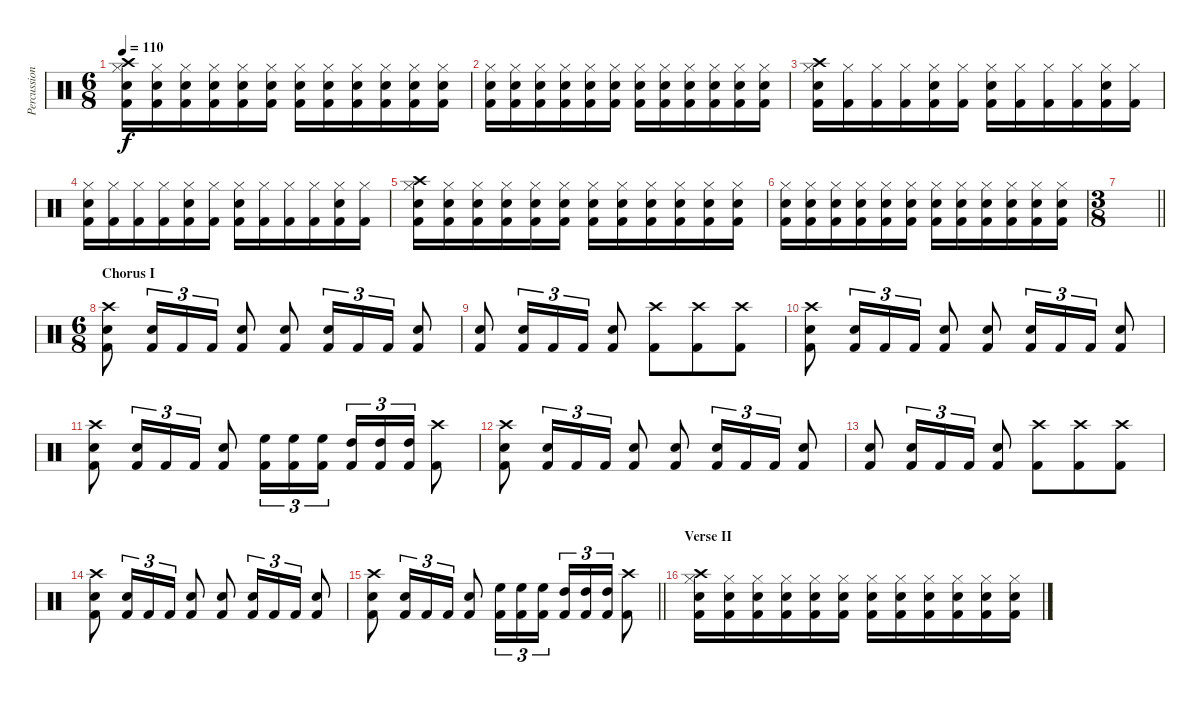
\track ("Percussion" "Percussion") {instrument percussion}
\staff {score}
\articulation defaults
\ts (6 8)
\tempo 110
\clef neutral
\ks c
("Crash high (hit)" "Hi-Hat (closed)" "Electric Snare (hit)" "Kick (hit) 2").16{dy f} ("Hi-Hat (closed)" "Electric Snare (hit)" "Kick (hit) 2").16 ("Hi-Hat (closed)" "Electric Snare (hit)" "Kick (hit) 2").16 ("Hi-Hat (closed)" "Electric Snare (hit)" "Kick (hit) 2").16 ("Hi-Hat (closed)" "Electric Snare (hit)" "Kick (hit) 2").16 ("Hi-Hat (closed)" "Electric Snare (hit)" "Kick (hit) 2").16 ("Hi-Hat (closed)" "Electric Snare (hit)" "Kick (hit) 2").16 ("Hi-Hat (closed)" "Electric Snare (hit)" "Kick (hit) 2").16 ("Hi-Hat (closed)" "Electric Snare (hit)" "Kick (hit) 2").16 ("Hi-Hat (closed)" "Electric Snare (hit)" "Kick (hit) 2").16 ("Hi-Hat (closed)" "Electric Snare (hit)" "Kick (hit) 2").16 ("Hi-Hat (closed)" "Electric Snare (hit)" "Kick (hit) 2").16 |
("Hi-Hat (closed)" "Electric Snare (hit)" "Kick (hit) 2").16 ("Hi-Hat (closed)" "Electric Snare (hit)" "Kick (hit) 2").16 ("Hi-Hat (closed)" "Electric Snare (hit)" "Kick (hit) 2").16 ("Hi-Hat (closed)" "Electric Snare (hit)" "Kick (hit) 2").16 ("Hi-Hat (closed)" "Electric Snare (hit)" "Kick (hit) 2").16 ("Hi-Hat (closed)" "Electric Snare (hit)" "Kick (hit) 2").16 ("Hi-Hat (closed)" "Electric Snare (hit)" "Kick (hit) 2").16 ("Hi-Hat (closed)" "Electric Snare (hit)" "Kick (hit) 2").16 ("Hi-Hat (closed)" "Electric Snare (hit)" "Kick (hit) 2").16 ("Hi-Hat (closed)" "Electric Snare (hit)" "Kick (hit) 2").16 ("Hi-Hat (closed)" "Electric Snare (hit)" "Kick (hit) 2").16 ("Hi-Hat (closed)" "Electric Snare (hit)" "Kick (hit) 2").16 |
("Crash high (hit)" "Hi-Hat (closed)" "Electric Snare (hit)" "Kick (hit) 2").16 ("Hi-Hat (closed)" "Kick (hit) 2").16 ("Hi-Hat (closed)" "Kick (hit) 2").16 ("Hi-Hat (closed)" "Kick (hit) 2").16 ("Hi-Hat (closed)" "Electric Snare (hit)" "Kick (hit) 2").16 ("Hi-Hat (closed)" "Kick (hit) 2").16 ("Hi-Hat (closed)" "Electric Snare (hit)" "Kick (hit) 2").16 ("Hi-Hat (closed)" "Kick (hit) 2").16 ("Hi-Hat (closed)" "Kick (hit) 2").16 ("Hi-Hat (closed)" "Kick (hit) 2").16 ("Hi-Hat (closed)" "Electric Snare (hit)" "Kick (hit) 2").16 ("Hi-Hat (closed)" "Kick (hit) 2").16 |
("Hi-Hat (closed)" "Electric Snare (hit)" "Kick (hit) 2").16 ("Hi-Hat (closed)" "Kick (hit) 2").16 ("Hi-Hat (closed)" "Kick (hit) 2").16 ("Hi-Hat (closed)" "Kick (hit) 2").16 ("Hi-Hat (closed)" "Electric Snare (hit)" "Kick (hit) 2").16 ("Hi-Hat (closed)" "Kick (hit) 2").16 ("Hi-Hat (closed)" "Electric Snare (hit)" "Kick (hit) 2").16 ("Hi-Hat (closed)" "Kick (hit) 2").16 ("Hi-Hat (closed)" "Kick (hit) 2").16 ("Hi-Hat (closed)" "Kick (hit) 2").16 ("Hi-Hat (closed)" "Electric Snare (hit)" "Kick (hit) 2").16 ("Hi-Hat (closed)" "Kick (hit) 2").16 |
("Crash high (hit)" "Hi-Hat (closed)" "Electric Snare (hit)" "Kick (hit) 2").16 ("Hi-Hat (closed)" "Electric Snare (hit)" "Kick (hit) 2").16 ("Hi-Hat (closed)" "Electric Snare (hit)" "Kick (hit) 2").16 ("Hi-Hat (closed)" "Electric Snare (hit)" "Kick (hit) 2").16 ("Hi-Hat (closed)" "Electric Snare (hit)" "Kick (hit) 2").16 ("Hi-Hat (closed)" "Electric Snare (hit)" "Kick (hit) 2").16 ("Hi-Hat (closed)" "Electric Snare (hit)" "Kick (hit) 2").16 ("Hi-Hat (closed)" "Electric Snare (hit)" "Kick (hit) 2").16 ("Hi-Hat (closed)" "Electric Snare (hit)" "Kick (hit) 2").16 ("Hi-Hat (closed)" "Electric Snare (hit)" "Kick (hit) 2").16 ("Hi-Hat (closed)" "Electric Snare (hit)" "Kick (hit) 2").16 ("Hi-Hat (closed)" "Electric Snare (hit)" "Kick (hit) 2").16 |
("Hi-Hat (closed)" "Electric Snare (hit)" "Kick (hit) 2").16 ("Hi-Hat (closed)" "Electric Snare (hit)" "Kick (hit) 2").16 ("Hi-Hat (closed)" "Electric Snare (hit)" "Kick (hit) 2").16 ("Hi-Hat (closed)" "Electric Snare (hit)" "Kick (hit) 2").16 ("Hi-Hat (closed)" "Electric Snare (hit)" "Kick (hit) 2").16 ("Hi-Hat (closed)" "Electric Snare (hit)" "Kick (hit) 2").16 ("Hi-Hat (closed)" "Electric Snare (hit)" "Kick (hit) 2").16 ("Hi-Hat (closed)" "Electric Snare (hit)" "Kick (hit) 2").16 ("Hi-Hat (closed)" "Electric Snare (hit)" "Kick (hit) 2").16 ("Hi-Hat (closed)" "Electric Snare (hit)" "Kick (hit) 2").16 ("Hi-Hat (closed)" "Electric Snare (hit)" "Kick (hit) 2").16 ("Hi-Hat (closed)" "Electric Snare (hit)" "Kick (hit) 2").16 |
\ts (3 8)
\barLineRight lightlight
|
\ts (6 8)
\section ("" "Chorus I")
("Crash high (hit)" "Electric Snare (hit)" "Kick (hit) 2").8 ("Electric Snare (hit)" "Kick (hit) 2").16{tu (3 2)} "Kick (hit) 2".16{tu (3 2)} "Kick (hit) 2".16{tu (3 2)} ("Electric Snare (hit)" "Kick (hit) 2").8 ("Electric Snare (hit)" "Kick (hit) 2").8 ("Electric Snare (hit)" "Kick (hit) 2").16{tu (3 2)} "Kick (hit) 2".16{tu (3 2)} "Kick (hit) 2".16{tu (3 2)} ("Electric Snare (hit)" "Kick (hit) 2").8 |
("Electric Snare (hit)" "Kick (hit) 2").8 ("Electric Snare (hit)" "Kick (hit) 2").16{tu (3 2)} "Kick (hit) 2".16{tu (3 2)} "Kick (hit) 2".16{tu (3 2)} ("Electric Snare (hit)" "Kick (hit) 2").8 ("Crash high (hit)" "Kick (hit) 2").8 ("Crash high (hit)" "Kick (hit) 2").8 ("Crash high (hit)" "Kick (hit) 2").8 |
("Crash high (hit)" "Electric Snare (hit)" "Kick (hit) 2").8 ("Electric Snare (hit)" "Kick (hit) 2").16{tu (3 2)} "Kick (hit) 2".16{tu (3 2)} "Kick (hit) 2".16{tu (3 2)} ("Electric Snare (hit)" "Kick (hit) 2").8 ("Electric Snare (hit)" "Kick (hit) 2").8 ("Electric Snare (hit)" "Kick (hit) 2").16{tu (3 2)} "Kick (hit) 2".16{tu (3 2)} "Kick (hit) 2".16{tu (3 2)} ("Electric Snare (hit)" "Kick (hit) 2").8 |
("Crash high (hit)" "Electric Snare (hit)" "Kick (hit) 2").8 ("Electric Snare (hit)" "Kick (hit) 2").16{tu (3 2)} "Kick (hit) 2".16{tu (3 2)} "Kick (hit) 2".16{tu (3 2)} ("Electric Snare (hit)" "Kick (hit) 2").8 ("High Floor Tom (hit)" "Kick (hit) 2").16{tu (3 2)} ("High Floor Tom (hit)" "Kick (hit) 2").16{tu (3 2)} ("High Floor Tom (hit)" "Kick (hit) 2").16{tu (3 2) beam splitsecondary} ("High Tom (hit)" "Kick (hit) 2").16{tu (3 2)} ("High Tom (hit)" "Kick (hit) 2").16{tu (3 2)} ("High Tom (hit)" "Kick (hit) 2").16{tu (3 2)} ("Crash high (hit)" "Kick (hit) 2").8 |
("Crash high (hit)" "Electric Snare (hit)" "Kick (hit) 2").8 ("Electric Snare (hit)" "Kick (hit) 2").16{tu (3 2)} "Kick (hit) 2".16{tu (3 2)} "Kick (hit) 2".16{tu (3 2)} ("Electric Snare (hit)" "Kick (hit) 2").8 ("Electric Snare (hit)" "Kick (hit) 2").8 ("Electric Snare (hit)" "Kick (hit) 2").16{tu (3 2)} "Kick (hit) 2".16{tu (3 2)} "Kick (hit) 2".16{tu (3 2)} ("Electric Snare (hit)" "Kick (hit) 2").8 |
("Electric Snare (hit)" "Kick (hit) 2").8 ("Electric Snare (hit)" "Kick (hit) 2").16{tu (3 2)} "Kick (hit) 2".16{tu (3 2)} "Kick (hit) 2".16{tu (3 2)} ("Electric Snare (hit)" "Kick (hit) 2").8 ("Crash high (hit)" "Kick (hit) 2").8 ("Crash high (hit)" "Kick (hit) 2").8 ("Crash high (hit)" "Kick (hit) 2").8 |
("Crash high (hit)" "Electric Snare (hit)" "Kick (hit) 2").8 ("Electric Snare (hit)" "Kick (hit) 2").16{tu (3 2)} "Kick (hit) 2".16{tu (3 2)} "Kick (hit) 2".16{tu (3 2)} ("Electric Snare (hit)" "Kick (hit) 2").8 ("Electric Snare (hit)" "Kick (hit) 2").8 ("Electric Snare (hit)" "Kick (hit) 2").16{tu (3 2)} "Kick (hit) 2".16{tu (3 2)} "Kick (hit) 2".16{tu (3 2)} ("Electric Snare (hit)" "Kick (hit) 2").8 |
\barLineRight lightlight
("Crash high (hit)" "Electric Snare (hit)" "Kick (hit) 2").8 ("Electric Snare (hit)" "Kick (hit) 2").16{tu (3 2)} "Kick (hit) 2".16{tu (3 2)} "Kick (hit) 2".16{tu (3 2)} ("Electric Snare (hit)" "Kick (hit) 2").8 ("High Floor Tom (hit)" "Kick (hit) 2").16{tu (3 2)} ("High Floor Tom (hit)" "Kick (hit) 2").16{tu (3 2)} ("High Floor Tom (hit)" "Kick (hit) 2").16{tu (3 2) beam splitsecondary} ("High Tom (hit)" "Kick (hit) 2").16{tu (3 2)} ("High Tom (hit)" "Kick (hit) 2").16{tu (3 2)} ("High Tom (hit)" "Kick (hit) 2").16{tu (3 2)} ("Crash high (hit)" "Kick (hit) 2").8 |
\section ("" "Verse II")
("Crash high (hit)" "Hi-Hat (closed)" "Electric Snare (hit)" "Kick (hit) 2").16 ("Hi-Hat (closed)" "Electric Snare (hit)" "Kick (hit) 2").16 ("Hi-Hat (closed)" "Electric Snare (hit)" "Kick (hit) 2").16 ("Hi-Hat (closed)" "Electric Snare (hit)" "Kick (hit) 2").16 ("Hi-Hat (closed)" "Electric Snare (hit)" "Kick (hit) 2").16 ("Hi-Hat (closed)" "Electric Snare (hit)" "Kick (hit) 2").16 ("Hi-Hat (closed)" "Electric Snare (hit)" "Kick (hit) 2").16 ("Hi-Hat (closed)" "Electric Snare (hit)" "Kick (hit) 2").16 ("Hi-Hat (closed)" "Electric Snare (hit)" "Kick (hit) 2").16 ("Hi-Hat (closed)" "Electric Snare (hit)" "Kick (hit) 2").16 ("Hi-Hat (closed)" "Electric Snare (hit)" "Kick (hit) 2").16 ("Hi-Hat (closed)" "Electric Snare (hit)" "Kick (hit) 2").16
